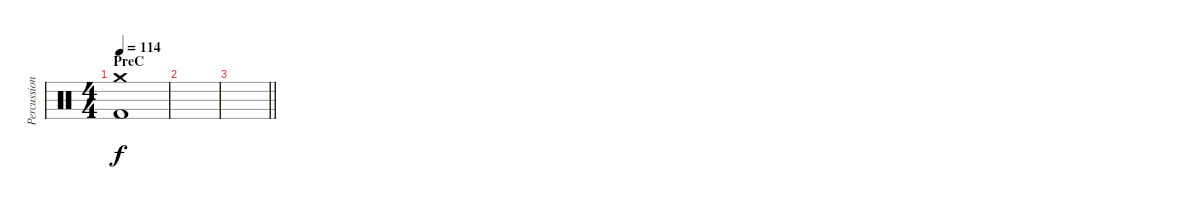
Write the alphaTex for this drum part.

\track ("Percussion" "Percussion") {instrument percussion}
\staff {score}
\articulation defaults
\ts (4 4)
\section ("" "PreC")
\tempo 114
\clef neutral
\ks c
("Crash medium (hit)" "Kick (hit) 2").1{dy f} |
|
\barLineRight lightlight
